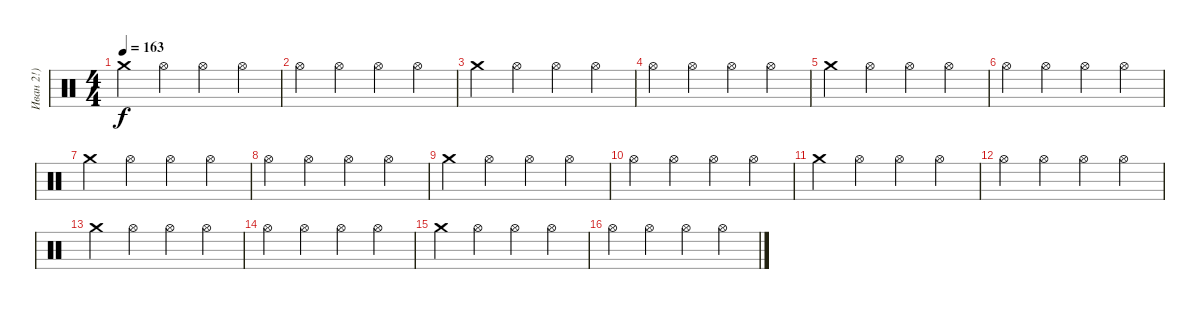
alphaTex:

\track ("Иван 2!)" "Иван 2!)") {instrument percussion}
\staff {score}
\articulation defaults
\ts (4 4)
\tempo 163
\clef neutral
\ks c "Crash medium (hit)".4{dy f} "Hi-Hat (open)".4 "Hi-Hat (open)".4 "Hi-Hat (open)".4
|
"Hi-Hat (open)".4 "Hi-Hat (open)".4 "Hi-Hat (open)".4 "Hi-Hat (open)".4 |
"Crash medium (hit)".4 "Hi-Hat (open)".4 "Hi-Hat (open)".4 "Hi-Hat (open)".4 |
"Hi-Hat (open)".4 "Hi-Hat (open)".4 "Hi-Hat (open)".4 "Hi-Hat (open)".4 |
"Crash medium (hit)".4 "Hi-Hat (open)".4 "Hi-Hat (open)".4 "Hi-Hat (open)".4 |
"Hi-Hat (open)".4 "Hi-Hat (open)".4 "Hi-Hat (open)".4 "Hi-Hat (open)".4 |
"Crash medium (hit)".4 "Hi-Hat (open)".4 "Hi-Hat (open)".4 "Hi-Hat (open)".4 |
"Hi-Hat (open)".4 "Hi-Hat (open)".4 "Hi-Hat (open)".4 "Hi-Hat (open)".4 |
"Crash medium (hit)".4 "Hi-Hat (open)".4 "Hi-Hat (open)".4 "Hi-Hat (open)".4 |
"Hi-Hat (open)".4 "Hi-Hat (open)".4 "Hi-Hat (open)".4 "Hi-Hat (open)".4 |
"Crash medium (hit)".4 "Hi-Hat (open)".4 "Hi-Hat (open)".4 "Hi-Hat (open)".4 |
"Hi-Hat (open)".4 "Hi-Hat (open)".4 "Hi-Hat (open)".4 "Hi-Hat (open)".4 |
"Crash medium (hit)".4 "Hi-Hat (open)".4 "Hi-Hat (open)".4 "Hi-Hat (open)".4 |
"Hi-Hat (open)".4 "Hi-Hat (open)".4 "Hi-Hat (open)".4 "Hi-Hat (open)".4 |
"Crash medium (hit)".4 "Hi-Hat (open)".4 "Hi-Hat (open)".4 "Hi-Hat (open)".4 |
"Hi-Hat (open)".4 "Hi-Hat (open)".4 "Hi-Hat (open)".4 "Hi-Hat (open)".4
